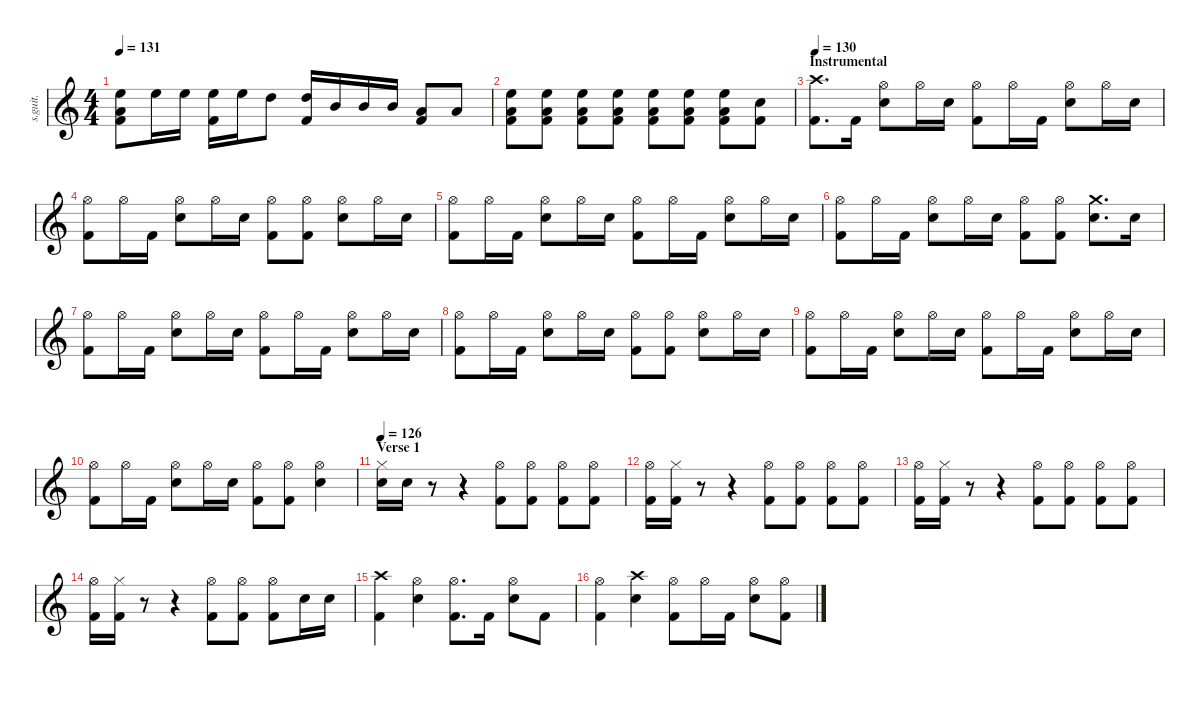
\defaultSystemsLayout 4
\hideDynamics
\bracketExtendMode nobrackets
\track ("John Dolmayan" "s.guit.") {instrument percussion}
\staff {score}
\articulation defaults
\ts (4 4)
\tempo 131
\clef g2
\ks c
("High Floor Tom (hit)" "Low Tom (hit)" "Kick (hit) 2").8{lyrics (0 "") lyrics (1 "") lyrics (2 "") lyrics (3 "") lyrics (4 "") dy f} "High Floor Tom (hit)".16{lyrics (0 "") lyrics (1 "") lyrics (2 "") lyrics (3 "") lyrics (4 "")} "High Floor Tom (hit)".16{lyrics (0 "") lyrics (1 "") lyrics (2 "") lyrics (3 "") lyrics (4 "")} ("High Floor Tom (hit)" "Kick (hit) 2").16{lyrics (0 "") lyrics (1 "") lyrics (2 "") lyrics (3 "") lyrics (4 "")} "High Floor Tom (hit)".16{lyrics (0 "") lyrics (1 "") lyrics (2 "") lyrics (3 "") lyrics (4 "")} "High Tom (hit)".8{lyrics (0 "") lyrics (1 "") lyrics (2 "") lyrics (3 "") lyrics (4 "")} ("High Tom (hit)" "Kick (hit) 2").16{lyrics (0 "") lyrics (1 "") lyrics (2 "") lyrics (3 "") lyrics (4 "")} "Mid Tom (hit)".16{lyrics (0 "") lyrics (1 "") lyrics (2 "") lyrics (3 "") lyrics (4 "")} "Mid Tom (hit)".16{lyrics (0 "") lyrics (1 "") lyrics (2 "") lyrics (3 "") lyrics (4 "")} "Mid Tom (hit)".16{lyrics (0 "") lyrics (1 "") lyrics (2 "") lyrics (3 "") lyrics (4 "")} ("Low Tom (hit)" "Kick (hit) 2").8{lyrics (0 "") lyrics (1 "") lyrics (2 "") lyrics (3 "") lyrics (4 "")} "Low Tom (hit)".8{lyrics (0 "") lyrics (1 "") lyrics (2 "") lyrics (3 "") lyrics (4 "")} |
("High Floor Tom (hit)" "Low Tom (hit)" "Kick (hit) 2").8{lyrics (0 "") lyrics (1 "") lyrics (2 "") lyrics (3 "") lyrics (4 "")} ("High Floor Tom (hit)" "Low Tom (hit)" "Kick (hit) 2").8{lyrics (0 "") lyrics (1 "") lyrics (2 "") lyrics (3 "") lyrics (4 "")} ("High Floor Tom (hit)" "Low Tom (hit)" "Kick (hit) 2").8{lyrics (0 "") lyrics (1 "") lyrics (2 "") lyrics (3 "") lyrics (4 "")} ("High Floor Tom (hit)" "Low Tom (hit)" "Kick (hit) 2").8{lyrics (0 "") lyrics (1 "") lyrics (2 "") lyrics (3 "") lyrics (4 "")} ("High Floor Tom (hit)" "Low Tom (hit)" "Kick (hit) 2").8{lyrics (0 "") lyrics (1 "") lyrics (2 "") lyrics (3 "") lyrics (4 "")} ("High Floor Tom (hit)" "Low Tom (hit)" "Kick (hit) 2").8{lyrics (0 "") lyrics (1 "") lyrics (2 "") lyrics (3 "") lyrics (4 "")} ("High Floor Tom (hit)" "Low Tom (hit)" "Kick (hit) 2").8{lyrics (0 "") lyrics (1 "") lyrics (2 "") lyrics (3 "") lyrics (4 "")} ("Snare (hit) 2" "Kick (hit) 2").8{lyrics (0 "") lyrics (1 "") lyrics (2 "") lyrics (3 "") lyrics (4 "") dy fff} |
\section ("" "Instrumental")
\tempo 130
("Crash high (hit)" "Kick (hit) 2").8{d lyrics (0 "") lyrics (1 "") lyrics (2 "") lyrics (3 "") lyrics (4 "") dy f} "Kick (hit) 2".16{lyrics (0 "") lyrics (1 "") lyrics (2 "") lyrics (3 "") lyrics (4 "")} ("Hi-Hat (open)" "Snare (hit) 2").8{lyrics (0 "") lyrics (1 "") lyrics (2 "") lyrics (3 "") lyrics (4 "")} "Hi-Hat (open)".16{lyrics (0 "") lyrics (1 "") lyrics (2 "") lyrics (3 "") lyrics (4 "")} "Snare (hit) 2".16{lyrics (0 "") lyrics (1 "") lyrics (2 "") lyrics (3 "") lyrics (4 "")} ("Hi-Hat (open)" "Kick (hit) 2").8{lyrics (0 "") lyrics (1 "") lyrics (2 "") lyrics (3 "") lyrics (4 "")} "Hi-Hat (open)".16{lyrics (0 "") lyrics (1 "") lyrics (2 "") lyrics (3 "") lyrics (4 "")} "Kick (hit) 2".16{lyrics (0 "") lyrics (1 "") lyrics (2 "") lyrics (3 "") lyrics (4 "")} ("Hi-Hat (open)" "Snare (hit) 2").8{lyrics (0 "") lyrics (1 "") lyrics (2 "") lyrics (3 "") lyrics (4 "")} "Hi-Hat (open)".16{lyrics (0 "") lyrics (1 "") lyrics (2 "") lyrics (3 "") lyrics (4 "")} "Snare (hit) 2".16{lyrics (0 "") lyrics (1 "") lyrics (2 "") lyrics (3 "") lyrics (4 "")} |
("Hi-Hat (open)" "Kick (hit) 2").8{lyrics (0 "") lyrics (1 "") lyrics (2 "") lyrics (3 "") lyrics (4 "")} "Hi-Hat (open)".16{lyrics (0 "") lyrics (1 "") lyrics (2 "") lyrics (3 "") lyrics (4 "")} "Kick (hit) 2".16{lyrics (0 "") lyrics (1 "") lyrics (2 "") lyrics (3 "") lyrics (4 "")} ("Hi-Hat (open)" "Snare (hit) 2").8{lyrics (0 "") lyrics (1 "") lyrics (2 "") lyrics (3 "") lyrics (4 "")} "Hi-Hat (open)".16{lyrics (0 "") lyrics (1 "") lyrics (2 "") lyrics (3 "") lyrics (4 "")} "Snare (hit) 2".16{lyrics (0 "") lyrics (1 "") lyrics (2 "") lyrics (3 "") lyrics (4 "")} ("Hi-Hat (open)" "Kick (hit) 2").8{lyrics (0 "") lyrics (1 "") lyrics (2 "") lyrics (3 "") lyrics (4 "")} ("Hi-Hat (open)" "Kick (hit) 2").8{lyrics (0 "") lyrics (1 "") lyrics (2 "") lyrics (3 "") lyrics (4 "")} ("Hi-Hat (open)" "Snare (hit) 2").8{lyrics (0 "") lyrics (1 "") lyrics (2 "") lyrics (3 "") lyrics (4 "")} "Hi-Hat (open)".16{lyrics (0 "") lyrics (1 "") lyrics (2 "") lyrics (3 "") lyrics (4 "")} "Snare (hit) 2".16{lyrics (0 "") lyrics (1 "") lyrics (2 "") lyrics (3 "") lyrics (4 "")} |
("Hi-Hat (open)" "Kick (hit) 2").8{lyrics (0 "") lyrics (1 "") lyrics (2 "") lyrics (3 "") lyrics (4 "")} "Hi-Hat (open)".16{lyrics (0 "") lyrics (1 "") lyrics (2 "") lyrics (3 "") lyrics (4 "")} "Kick (hit) 2".16{lyrics (0 "") lyrics (1 "") lyrics (2 "") lyrics (3 "") lyrics (4 "")} ("Hi-Hat (open)" "Snare (hit) 2").8{lyrics (0 "") lyrics (1 "") lyrics (2 "") lyrics (3 "") lyrics (4 "")} "Hi-Hat (open)".16{lyrics (0 "") lyrics (1 "") lyrics (2 "") lyrics (3 "") lyrics (4 "")} "Snare (hit) 2".16{lyrics (0 "") lyrics (1 "") lyrics (2 "") lyrics (3 "") lyrics (4 "")} ("Hi-Hat (open)" "Kick (hit) 2").8{lyrics (0 "") lyrics (1 "") lyrics (2 "") lyrics (3 "") lyrics (4 "")} "Hi-Hat (open)".16{lyrics (0 "") lyrics (1 "") lyrics (2 "") lyrics (3 "") lyrics (4 "")} "Kick (hit) 2".16{lyrics (0 "") lyrics (1 "") lyrics (2 "") lyrics (3 "") lyrics (4 "")} ("Hi-Hat (open)" "Snare (hit) 2").8{lyrics (0 "") lyrics (1 "") lyrics (2 "") lyrics (3 "") lyrics (4 "")} "Hi-Hat (open)".16{lyrics (0 "") lyrics (1 "") lyrics (2 "") lyrics (3 "") lyrics (4 "")} "Snare (hit) 2".16{lyrics (0 "") lyrics (1 "") lyrics (2 "") lyrics (3 "") lyrics (4 "")} |
("Hi-Hat (open)" "Kick (hit) 2").8{lyrics (0 "") lyrics (1 "") lyrics (2 "") lyrics (3 "") lyrics (4 "")} "Hi-Hat (open)".16{lyrics (0 "") lyrics (1 "") lyrics (2 "") lyrics (3 "") lyrics (4 "")} "Kick (hit) 2".16{lyrics (0 "") lyrics (1 "") lyrics (2 "") lyrics (3 "") lyrics (4 "")} ("Hi-Hat (open)" "Snare (hit) 2").8{lyrics (0 "") lyrics (1 "") lyrics (2 "") lyrics (3 "") lyrics (4 "")} "Hi-Hat (open)".16{lyrics (0 "") lyrics (1 "") lyrics (2 "") lyrics (3 "") lyrics (4 "")} "Snare (hit) 2".16{lyrics (0 "") lyrics (1 "") lyrics (2 "") lyrics (3 "") lyrics (4 "")} ("Hi-Hat (open)" "Kick (hit) 2").8{lyrics (0 "") lyrics (1 "") lyrics (2 "") lyrics (3 "") lyrics (4 "")} ("Hi-Hat (open)" "Kick (hit) 2").8{lyrics (0 "") lyrics (1 "") lyrics (2 "") lyrics (3 "") lyrics (4 "")} ("Crash medium (hit)" "Snare (hit) 2").8{d lyrics (0 "") lyrics (1 "") lyrics (2 "") lyrics (3 "") lyrics (4 "")} "Snare (hit) 2".16{lyrics (0 "") lyrics (1 "") lyrics (2 "") lyrics (3 "") lyrics (4 "")} |
("Hi-Hat (open)" "Kick (hit) 2").8{lyrics (0 "") lyrics (1 "") lyrics (2 "") lyrics (3 "") lyrics (4 "")} "Hi-Hat (open)".16{lyrics (0 "") lyrics (1 "") lyrics (2 "") lyrics (3 "") lyrics (4 "")} "Kick (hit) 2".16{lyrics (0 "") lyrics (1 "") lyrics (2 "") lyrics (3 "") lyrics (4 "")} ("Hi-Hat (open)" "Snare (hit) 2").8{lyrics (0 "") lyrics (1 "") lyrics (2 "") lyrics (3 "") lyrics (4 "")} "Hi-Hat (open)".16{lyrics (0 "") lyrics (1 "") lyrics (2 "") lyrics (3 "") lyrics (4 "")} "Snare (hit) 2".16{lyrics (0 "") lyrics (1 "") lyrics (2 "") lyrics (3 "") lyrics (4 "")} ("Hi-Hat (open)" "Kick (hit) 2").8{lyrics (0 "") lyrics (1 "") lyrics (2 "") lyrics (3 "") lyrics (4 "")} "Hi-Hat (open)".16{lyrics (0 "") lyrics (1 "") lyrics (2 "") lyrics (3 "") lyrics (4 "")} "Kick (hit) 2".16{lyrics (0 "") lyrics (1 "") lyrics (2 "") lyrics (3 "") lyrics (4 "")} ("Hi-Hat (open)" "Snare (hit) 2").8{lyrics (0 "") lyrics (1 "") lyrics (2 "") lyrics (3 "") lyrics (4 "")} "Hi-Hat (open)".16{lyrics (0 "") lyrics (1 "") lyrics (2 "") lyrics (3 "") lyrics (4 "")} "Snare (hit) 2".16{lyrics (0 "") lyrics (1 "") lyrics (2 "") lyrics (3 "") lyrics (4 "")} |
("Hi-Hat (open)" "Kick (hit) 2").8{lyrics (0 "") lyrics (1 "") lyrics (2 "") lyrics (3 "") lyrics (4 "")} "Hi-Hat (open)".16{lyrics (0 "") lyrics (1 "") lyrics (2 "") lyrics (3 "") lyrics (4 "")} "Kick (hit) 2".16{lyrics (0 "") lyrics (1 "") lyrics (2 "") lyrics (3 "") lyrics (4 "")} ("Hi-Hat (open)" "Snare (hit) 2").8{lyrics (0 "") lyrics (1 "") lyrics (2 "") lyrics (3 "") lyrics (4 "")} "Hi-Hat (open)".16{lyrics (0 "") lyrics (1 "") lyrics (2 "") lyrics (3 "") lyrics (4 "")} "Snare (hit) 2".16{lyrics (0 "") lyrics (1 "") lyrics (2 "") lyrics (3 "") lyrics (4 "")} ("Hi-Hat (open)" "Kick (hit) 2").8{lyrics (0 "") lyrics (1 "") lyrics (2 "") lyrics (3 "") lyrics (4 "")} ("Hi-Hat (open)" "Kick (hit) 2").8{lyrics (0 "") lyrics (1 "") lyrics (2 "") lyrics (3 "") lyrics (4 "")} ("Hi-Hat (open)" "Snare (hit) 2").8{lyrics (0 "") lyrics (1 "") lyrics (2 "") lyrics (3 "") lyrics (4 "")} "Hi-Hat (open)".16{lyrics (0 "") lyrics (1 "") lyrics (2 "") lyrics (3 "") lyrics (4 "")} "Snare (hit) 2".16{lyrics (0 "") lyrics (1 "") lyrics (2 "") lyrics (3 "") lyrics (4 "")} |
("Hi-Hat (open)" "Kick (hit) 2").8{lyrics (0 "") lyrics (1 "") lyrics (2 "") lyrics (3 "") lyrics (4 "")} "Hi-Hat (open)".16{lyrics (0 "") lyrics (1 "") lyrics (2 "") lyrics (3 "") lyrics (4 "")} "Kick (hit) 2".16{lyrics (0 "") lyrics (1 "") lyrics (2 "") lyrics (3 "") lyrics (4 "")} ("Hi-Hat (open)" "Snare (hit) 2").8{lyrics (0 "") lyrics (1 "") lyrics (2 "") lyrics (3 "") lyrics (4 "")} "Hi-Hat (open)".16{lyrics (0 "") lyrics (1 "") lyrics (2 "") lyrics (3 "") lyrics (4 "")} "Snare (hit) 2".16{lyrics (0 "") lyrics (1 "") lyrics (2 "") lyrics (3 "") lyrics (4 "")} ("Hi-Hat (open)" "Kick (hit) 2").8{lyrics (0 "") lyrics (1 "") lyrics (2 "") lyrics (3 "") lyrics (4 "")} "Hi-Hat (open)".16{lyrics (0 "") lyrics (1 "") lyrics (2 "") lyrics (3 "") lyrics (4 "")} "Kick (hit) 2".16{lyrics (0 "") lyrics (1 "") lyrics (2 "") lyrics (3 "") lyrics (4 "")} ("Hi-Hat (open)" "Snare (hit) 2").8{lyrics (0 "") lyrics (1 "") lyrics (2 "") lyrics (3 "") lyrics (4 "")} "Hi-Hat (open)".16{lyrics (0 "") lyrics (1 "") lyrics (2 "") lyrics (3 "") lyrics (4 "")} "Snare (hit) 2".16{lyrics (0 "") lyrics (1 "") lyrics (2 "") lyrics (3 "") lyrics (4 "")} |
("Hi-Hat (open)" "Kick (hit) 2").8{lyrics (0 "") lyrics (1 "") lyrics (2 "") lyrics (3 "") lyrics (4 "")} "Hi-Hat (open)".16{lyrics (0 "") lyrics (1 "") lyrics (2 "") lyrics (3 "") lyrics (4 "")} "Kick (hit) 2".16{lyrics (0 "") lyrics (1 "") lyrics (2 "") lyrics (3 "") lyrics (4 "")} ("Hi-Hat (open)" "Snare (hit) 2").8{lyrics (0 "") lyrics (1 "") lyrics (2 "") lyrics (3 "") lyrics (4 "")} "Hi-Hat (open)".16{lyrics (0 "") lyrics (1 "") lyrics (2 "") lyrics (3 "") lyrics (4 "")} "Snare (hit) 2".16{lyrics (0 "") lyrics (1 "") lyrics (2 "") lyrics (3 "") lyrics (4 "")} ("Hi-Hat (open)" "Kick (hit) 2").8{lyrics (0 "") lyrics (1 "") lyrics (2 "") lyrics (3 "") lyrics (4 "")} ("Hi-Hat (open)" "Kick (hit) 2").8{lyrics (0 "") lyrics (1 "") lyrics (2 "") lyrics (3 "") lyrics (4 "")} ("Hi-Hat (open)" "Snare (hit) 2").4{lyrics (0 "") lyrics (1 "") lyrics (2 "") lyrics (3 "") lyrics (4 "")} |
\section ("" "Verse 1")
\tempo 126
("Snare (hit) 2" "Hi-Hat (closed)").16{lyrics (0 "") lyrics (1 "") lyrics (2 "") lyrics (3 "") lyrics (4 "")} "Snare (hit) 2".16{lyrics (0 "") lyrics (1 "") lyrics (2 "") lyrics (3 "") lyrics (4 "")} r.8 r.4 ("Hi-Hat (open)" "Kick (hit) 2").8{lyrics (0 "") lyrics (1 "") lyrics (2 "") lyrics (3 "") lyrics (4 "")} ("Hi-Hat (open)" "Kick (hit) 2").8{lyrics (0 "") lyrics (1 "") lyrics (2 "") lyrics (3 "") lyrics (4 "")} ("Hi-Hat (open)" "Kick (hit) 2").8{lyrics (0 "") lyrics (1 "") lyrics (2 "") lyrics (3 "") lyrics (4 "")} ("Hi-Hat (open)" "Kick (hit) 2").8{lyrics (0 "") lyrics (1 "") lyrics (2 "") lyrics (3 "") lyrics (4 "")} |
("Hi-Hat (open)" "Kick (hit) 2").16{lyrics (0 "") lyrics (1 "") lyrics (2 "") lyrics (3 "") lyrics (4 "")} ("Hi-Hat (closed)" "Kick (hit) 2").16{lyrics (0 "") lyrics (1 "") lyrics (2 "") lyrics (3 "") lyrics (4 "")} r.8 r.4 ("Hi-Hat (open)" "Kick (hit) 2").8{lyrics (0 "") lyrics (1 "") lyrics (2 "") lyrics (3 "") lyrics (4 "") dy ff} ("Hi-Hat (open)" "Kick (hit) 2").8{lyrics (0 "") lyrics (1 "") lyrics (2 "") lyrics (3 "") lyrics (4 "")} ("Hi-Hat (open)" "Kick (hit) 2").8{lyrics (0 "") lyrics (1 "") lyrics (2 "") lyrics (3 "") lyrics (4 "")} ("Hi-Hat (open)" "Kick (hit) 2").8{lyrics (0 "") lyrics (1 "") lyrics (2 "") lyrics (3 "") lyrics (4 "")} |
("Hi-Hat (open)" "Kick (hit) 2").16{lyrics (0 "") lyrics (1 "") lyrics (2 "") lyrics (3 "") lyrics (4 "") dy f} ("Hi-Hat (closed)" "Kick (hit) 2").16{lyrics (0 "") lyrics (1 "") lyrics (2 "") lyrics (3 "") lyrics (4 "")} r.8 r.4 ("Hi-Hat (open)" "Kick (hit) 2").8{lyrics (0 "") lyrics (1 "") lyrics (2 "") lyrics (3 "") lyrics (4 "") dy ff} ("Hi-Hat (open)" "Kick (hit) 2").8{lyrics (0 "") lyrics (1 "") lyrics (2 "") lyrics (3 "") lyrics (4 "")} ("Hi-Hat (open)" "Kick (hit) 2").8{lyrics (0 "") lyrics (1 "") lyrics (2 "") lyrics (3 "") lyrics (4 "")} ("Hi-Hat (open)" "Kick (hit) 2").8{lyrics (0 "") lyrics (1 "") lyrics (2 "") lyrics (3 "") lyrics (4 "")} |
("Hi-Hat (open)" "Kick (hit) 2").16{lyrics (0 "") lyrics (1 "") lyrics (2 "") lyrics (3 "") lyrics (4 "") dy f} ("Hi-Hat (closed)" "Kick (hit) 2").16{lyrics (0 "") lyrics (1 "") lyrics (2 "") lyrics (3 "") lyrics (4 "")} r.8 r.4 ("Hi-Hat (open)" "Kick (hit) 2").8{lyrics (0 "") lyrics (1 "") lyrics (2 "") lyrics (3 "") lyrics (4 "")} ("Hi-Hat (open)" "Kick (hit) 2").8{lyrics (0 "") lyrics (1 "") lyrics (2 "") lyrics (3 "") lyrics (4 "")} ("Hi-Hat (open)" "Kick (hit) 2").8{lyrics (0 "") lyrics (1 "") lyrics (2 "") lyrics (3 "") lyrics (4 "")} "Snare (hit) 2".16{lyrics (0 "") lyrics (1 "") lyrics (2 "") lyrics (3 "") lyrics (4 "")} "Snare (hit) 2".16{lyrics (0 "") lyrics (1 "") lyrics (2 "") lyrics (3 "") lyrics (4 "")} |
("Crash high (hit)" "Kick (hit) 2").4{lyrics (0 "") lyrics (1 "") lyrics (2 "") lyrics (3 "") lyrics (4 "")} ("Hi-Hat (open)" "Snare (hit) 2").4{lyrics (0 "") lyrics (1 "") lyrics (2 "") lyrics (3 "") lyrics (4 "")} ("Hi-Hat (open)" "Kick (hit) 2").8{d lyrics (0 "") lyrics (1 "") lyrics (2 "") lyrics (3 "") lyrics (4 "")} "Kick (hit) 2".16{lyrics (0 "") lyrics (1 "") lyrics (2 "") lyrics (3 "") lyrics (4 "")} ("Hi-Hat (open)" "Snare (hit) 2").8{lyrics (0 "") lyrics (1 "") lyrics (2 "") lyrics (3 "") lyrics (4 "")} "Kick (hit) 2".8{lyrics (0 "") lyrics (1 "") lyrics (2 "") lyrics (3 "") lyrics (4 "")} |
("Hi-Hat (open)" "Kick (hit) 2").4{lyrics (0 "") lyrics (1 "") lyrics (2 "") lyrics (3 "") lyrics (4 "")} ("Crash high (hit)" "Snare (hit) 2").4{lyrics (0 "") lyrics (1 "") lyrics (2 "") lyrics (3 "") lyrics (4 "")} ("Hi-Hat (open)" "Kick (hit) 2").8{lyrics (0 "") lyrics (1 "") lyrics (2 "") lyrics (3 "") lyrics (4 "")} "Hi-Hat (open)".16{lyrics (0 "") lyrics (1 "") lyrics (2 "") lyrics (3 "") lyrics (4 "")} "Kick (hit) 2".16{lyrics (0 "") lyrics (1 "") lyrics (2 "") lyrics (3 "") lyrics (4 "")} ("Hi-Hat (open)" "Snare (hit) 2").8{lyrics (0 "") lyrics (1 "") lyrics (2 "") lyrics (3 "") lyrics (4 "")} ("Hi-Hat (open)" "Kick (hit) 2").8{lyrics (0 "") lyrics (1 "") lyrics (2 "") lyrics (3 "") lyrics (4 "")}
